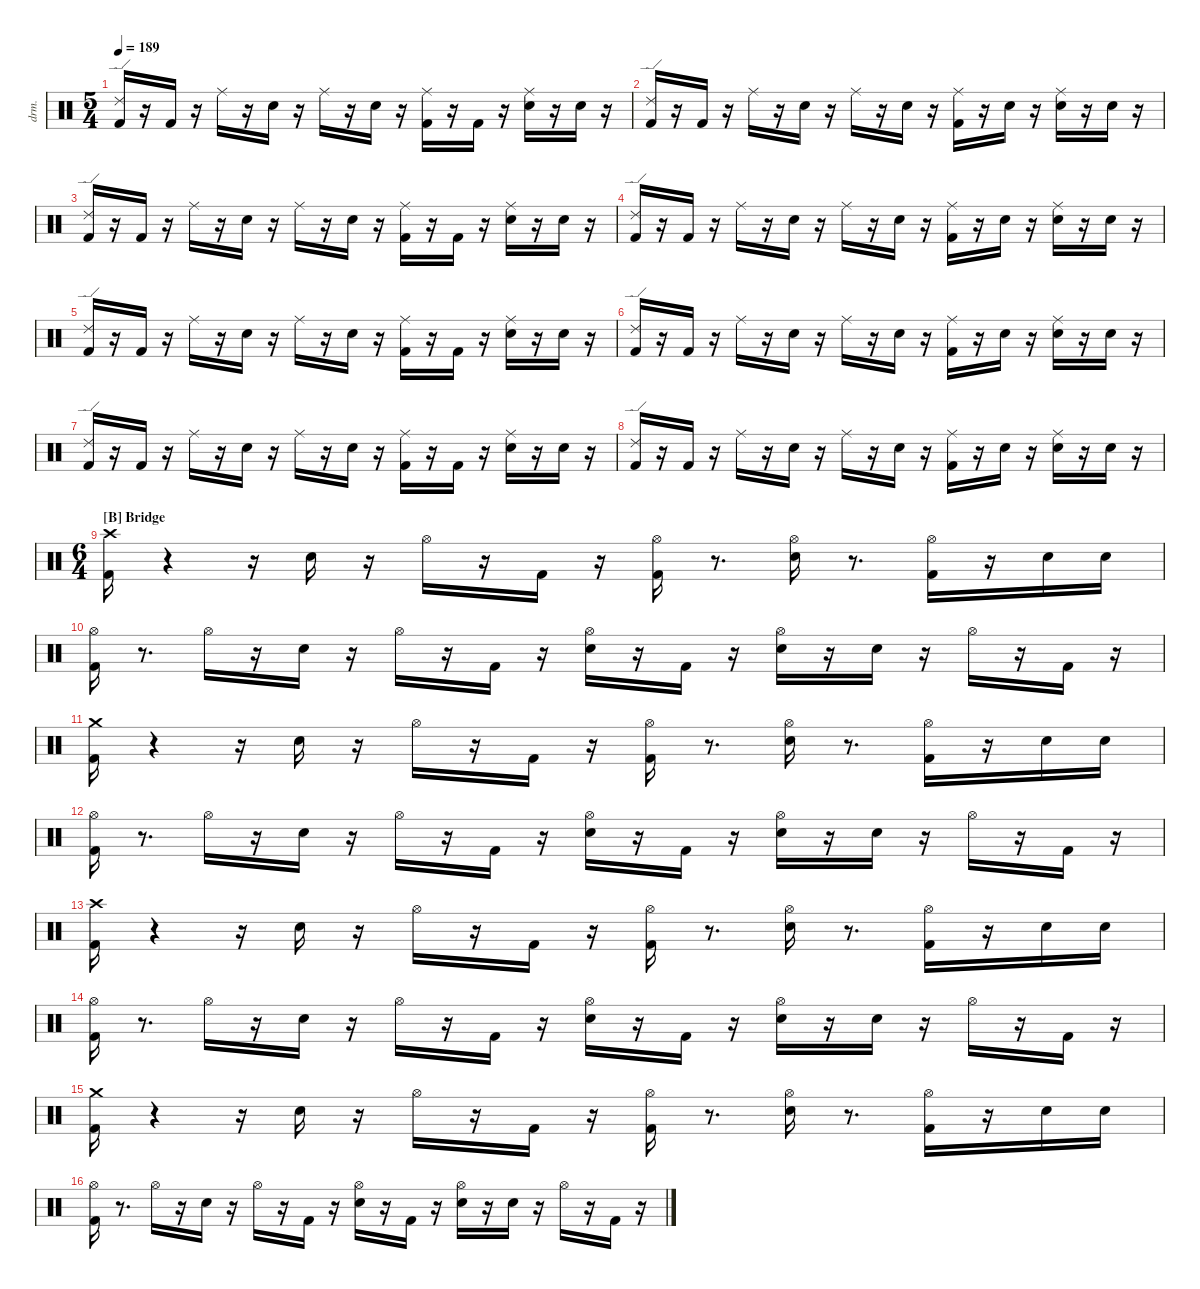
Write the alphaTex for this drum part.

\defaultSystemsLayout 4
\hideDynamics
\bracketExtendMode nobrackets
\track ("EZdrummer 3" "drm.") {instrument percussion}
\staff {score}
\articulation defaults
\ts (5 4)
\tempo 189
\clef neutral
\ks aminor
("Kick (hit) 2" "Ride (edge) 2").16{dy ff} r.16 "Kick (hit) 2".16{dy fff} r.16 "Ride (middle)"{acc #}.16{dy f} r.16 "Snare (hit) 2".16{dy ff} r.16 "Ride (middle)"{acc #}.16 r.16 "Snare (hit) 2".16 r.16 ("Kick (hit) 2" "Ride (middle)"{acc #}).16{dy f} r.16 "Kick (hit) 2".16{dy fff} r.16 ("Snare (hit) 2" "Ride (middle)"{acc #}).16{dy ff} r.16 "Snare (hit) 2".16{dy mp} r.16 |
("Kick (hit) 2" "Ride (edge) 2").16{dy f} r.16 "Kick (hit) 2".16{dy fff} r.16 "Ride (middle)"{acc #}.16{dy f} r.16 "Snare (hit) 2".16{dy ff} r.16 "Ride (middle)"{acc #}.16 r.16 "Snare (hit) 2".16 r.16 ("Kick (hit) 2" "Ride (middle)"{acc #}).16 r.16 "Snare (hit) 2".16{dy mf} r.16 ("Snare (hit) 2" "Ride (middle)"{acc #}).16{dy ff} r.16 "Snare (hit) 2".16{dy p} r.16 |
("Kick (hit) 2" "Ride (edge) 2").16{dy ff} r.16 "Kick (hit) 2".16{dy fff} r.16 "Ride (middle)"{acc #}.16{dy f} r.16 "Snare (hit) 2".16{dy ff} r.16 "Ride (middle)"{acc #}.16 r.16 "Snare (hit) 2".16 r.16 ("Kick (hit) 2" "Ride (middle)"{acc #}).16{dy f} r.16 "Kick (hit) 2".16{dy fff} r.16 ("Snare (hit) 2" "Ride (middle)"{acc #}).16{dy ff} r.16 "Snare (hit) 2".16{dy mp} r.16 |
("Kick (hit) 2" "Ride (edge) 2").16{dy f} r.16 "Kick (hit) 2".16{dy fff} r.16 "Ride (middle)"{acc #}.16{dy f} r.16 "Snare (hit) 2".16{dy ff} r.16 "Ride (middle)"{acc #}.16 r.16 "Snare (hit) 2".16 r.16 ("Kick (hit) 2" "Ride (middle)"{acc #}).16 r.16 "Snare (hit) 2".16{dy mf} r.16 ("Snare (hit) 2" "Ride (middle)"{acc #}).16{dy ff} r.16 "Snare (hit) 2".16{dy p} r.16 |
("Kick (hit) 2" "Ride (edge) 2").16{dy ff} r.16 "Kick (hit) 2".16{dy fff} r.16 "Ride (middle)"{acc #}.16{dy f} r.16 "Snare (hit) 2".16{dy ff} r.16 "Ride (middle)"{acc #}.16 r.16 "Snare (hit) 2".16 r.16 ("Kick (hit) 2" "Ride (middle)"{acc #}).16{dy f} r.16 "Kick (hit) 2".16{dy fff} r.16 ("Snare (hit) 2" "Ride (middle)"{acc #}).16{dy ff} r.16 "Snare (hit) 2".16{dy mp} r.16 |
("Kick (hit) 2" "Ride (edge) 2").16{dy f} r.16 "Kick (hit) 2".16{dy fff} r.16 "Ride (middle)"{acc #}.16{dy f} r.16 "Snare (hit) 2".16{dy ff} r.16 "Ride (middle)"{acc #}.16 r.16 "Snare (hit) 2".16 r.16 ("Kick (hit) 2" "Ride (middle)"{acc #}).16 r.16 "Snare (hit) 2".16{dy mf} r.16 ("Snare (hit) 2" "Ride (middle)"{acc #}).16{dy ff} r.16 "Snare (hit) 2".16{dy p} r.16 |
("Kick (hit) 2" "Ride (edge) 2").16{dy ff} r.16 "Kick (hit) 2".16{dy fff} r.16 "Ride (middle)"{acc #}.16{dy f} r.16 "Snare (hit) 2".16{dy ff} r.16 "Ride (middle)"{acc #}.16 r.16 "Snare (hit) 2".16 r.16 ("Kick (hit) 2" "Ride (middle)"{acc #}).16{dy f} r.16 "Kick (hit) 2".16{dy fff} r.16 ("Snare (hit) 2" "Ride (middle)"{acc #}).16{dy ff} r.16 "Snare (hit) 2".16{dy mp} r.16 |
("Kick (hit) 2" "Ride (edge) 2").16{dy f} r.16 "Kick (hit) 2".16{dy fff} r.16 "Ride (middle)"{acc #}.16{dy f} r.16 "Snare (hit) 2".16{dy ff} r.16 "Ride (middle)"{acc #}.16 r.16 "Snare (hit) 2".16 r.16 ("Kick (hit) 2" "Ride (middle)"{acc #}).16 r.16 "Snare (hit) 2".16{dy mf} r.16 ("Snare (hit) 2" "Ride (middle)"{acc #}).16{dy ff} r.16 "Snare (hit) 2".16{dy fff} r.16 |
\ts (6 4)
\section ("B" "Bridge")
("Kick (hit) 2" "Crash high (hit)"{acc #}).16 r.4 r.16 "Snare (hit) 2".16{dy ff} r.16 "Hi-Hat (open)"{acc #}.16{dy mf} r.16 "Kick (hit) 2".16{dy p} r.16 ("Kick (hit) 2" "Hi-Hat (open)"{acc #}).16{dy fff} r.8{d} ("Snare (hit) 2" "Hi-Hat (open)"{acc #}).16{dy ff} r.8{d} ("Kick (hit) 2" "Hi-Hat (open)"{acc #}).16 r.16 "Snare (hit) 2".16{dy p} "Snare (hit) 2".16{dy ppp} |
("Kick (hit) 2" "Hi-Hat (open)"{acc #}).16{dy fff} r.8{d} "Hi-Hat (open)"{acc #}.16{dy mf} r.16 "Snare (hit) 2".16{dy ff} r.16 "Hi-Hat (open)"{acc #}.16 r.16 "Kick (hit) 2".16{dy f} r.16 ("Snare (hit) 2" "Hi-Hat (open)"{acc #}).16{dy mf} r.16 "Kick (hit) 2".16{dy ff} r.16 ("Snare (hit) 2" "Hi-Hat (open)"{acc #}).16{dy ppp} r.16 "Snare (hit) 2".16{dy fff} r.16 "Hi-Hat (open)"{acc #}.16{dy f} r.16 "Kick (hit) 2".16{dy mf} r.16 |
("Kick (hit) 2" "Crash medium (hit)").16{dy fff} r.4 r.16 "Snare (hit) 2".16{dy ff} r.16 "Hi-Hat (open)"{acc #}.16{dy mf} r.16 "Kick (hit) 2".16{dy p} r.16 ("Kick (hit) 2" "Hi-Hat (open)"{acc #}).16{dy fff} r.8{d} ("Snare (hit) 2" "Hi-Hat (open)"{acc #}).16{dy ff} r.8{d} ("Kick (hit) 2" "Hi-Hat (open)"{acc #}).16 r.16 "Snare (hit) 2".16{dy p} "Snare (hit) 2".16{dy ppp} |
("Kick (hit) 2" "Hi-Hat (open)"{acc #}).16{dy fff} r.8{d} "Hi-Hat (open)"{acc #}.16{dy mf} r.16 "Snare (hit) 2".16{dy ff} r.16 "Hi-Hat (open)"{acc #}.16 r.16 "Kick (hit) 2".16{dy f} r.16 ("Snare (hit) 2" "Hi-Hat (open)"{acc #}).16{dy mf} r.16 "Kick (hit) 2".16{dy ff} r.16 ("Snare (hit) 2" "Hi-Hat (open)"{acc #}).16{dy mf} r.16 "Snare (hit) 2".16{dy fff} r.16 "Hi-Hat (open)"{acc #}.16{dy f} r.16 "Kick (hit) 2".16{dy mf} r.16 |
("Kick (hit) 2" "Crash high (hit)"{acc #}).16{dy fff} r.4 r.16 "Snare (hit) 2".16{dy ff} r.16 "Hi-Hat (open)"{acc #}.16{dy mf} r.16 "Kick (hit) 2".16{dy p} r.16 ("Kick (hit) 2" "Hi-Hat (open)"{acc #}).16{dy fff} r.8{d} ("Snare (hit) 2" "Hi-Hat (open)"{acc #}).16{dy ff} r.8{d} ("Kick (hit) 2" "Hi-Hat (open)"{acc #}).16 r.16 "Snare (hit) 2".16{dy p} "Snare (hit) 2".16{dy ppp} |
("Kick (hit) 2" "Hi-Hat (open)"{acc #}).16{dy fff} r.8{d} "Hi-Hat (open)"{acc #}.16{dy mf} r.16 "Snare (hit) 2".16{dy ff} r.16 "Hi-Hat (open)"{acc #}.16 r.16 "Kick (hit) 2".16{dy f} r.16 ("Snare (hit) 2" "Hi-Hat (open)"{acc #}).16{dy mf} r.16 "Kick (hit) 2".16{dy ff} r.16 ("Snare (hit) 2" "Hi-Hat (open)"{acc #}).16{dy ppp} r.16 "Snare (hit) 2".16{dy fff} r.16 "Hi-Hat (open)"{acc #}.16{dy f} r.16 "Kick (hit) 2".16{dy mf} r.16 |
("Kick (hit) 2" "Crash medium (hit)").16{dy fff} r.4 r.16 "Snare (hit) 2".16{dy ff} r.16 "Hi-Hat (open)"{acc #}.16{dy mf} r.16 "Kick (hit) 2".16{dy p} r.16 ("Kick (hit) 2" "Hi-Hat (open)"{acc #}).16{dy fff} r.8{d} ("Snare (hit) 2" "Hi-Hat (open)"{acc #}).16{dy mp} r.8{d} ("Kick (hit) 2" "Hi-Hat (open)"{acc #}).16{dy ff} r.16 "Snare (hit) 2".16{dy p} "Snare (hit) 2".16{dy ppp} |
("Kick (hit) 2" "Hi-Hat (open)"{acc #}).16{dy fff} r.8{d} "Hi-Hat (open)"{acc #}.16{dy mf} r.16 "Snare (hit) 2".16{dy ff} r.16 "Hi-Hat (open)"{acc #}.16 r.16 "Kick (hit) 2".16{dy f} r.16 ("Snare (hit) 2" "Hi-Hat (open)"{acc #}).16{dy mf} r.16 "Kick (hit) 2".16{dy ff} r.16 ("Snare (hit) 2" "Hi-Hat (open)"{acc #}).16{dy ppp} r.16 "Snare (hit) 2".16{dy fff} r.16 "Hi-Hat (open)"{acc #}.16{dy f} r.16 "Kick (hit) 2".16{dy mf} r.16
